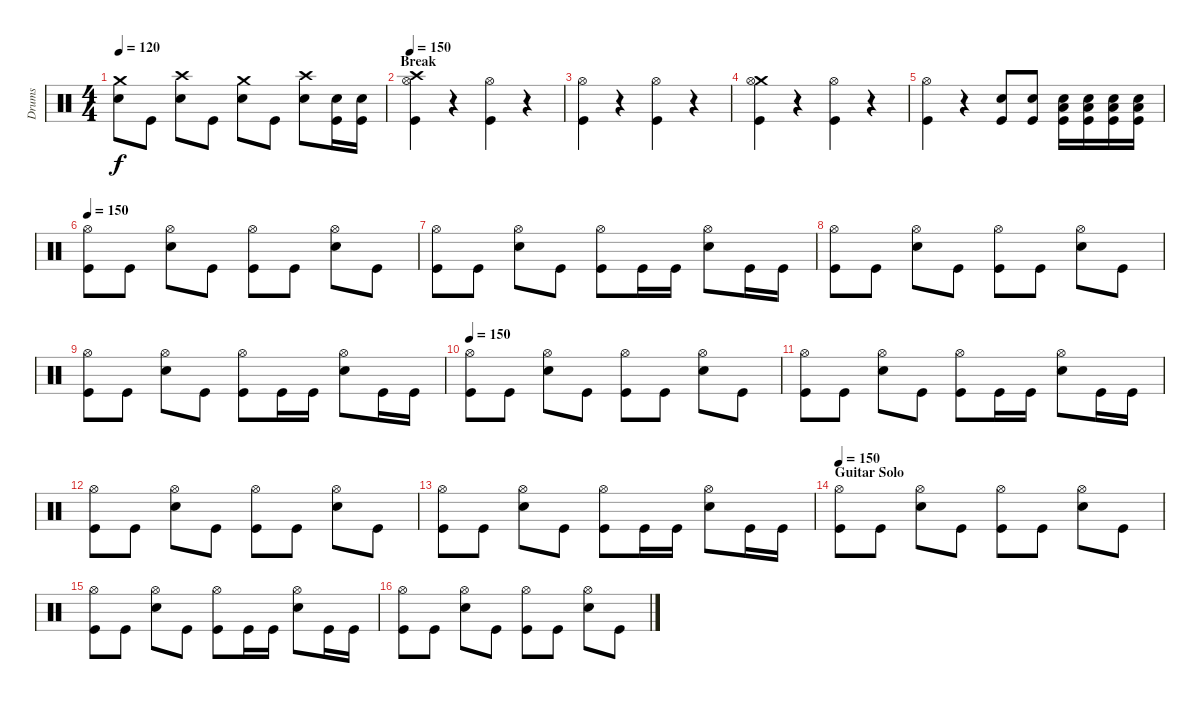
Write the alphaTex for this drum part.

\track ("Drums" "Drums") {instrument percussion}
\staff {score}
\articulation defaults
\ts (4 4)
\tempo 120
\clef neutral
\ks c
("Crash medium (hit)" "Electric Snare (hit)").8{dy f} "Kick (hit)".8 ("Crash high (hit)" "Electric Snare (hit)").8 "Kick (hit)".8 ("Crash medium (hit)" "Electric Snare (hit)").8 "Kick (hit)".8 ("Crash high (hit)" "Electric Snare (hit)").8 ("Snare (hit) 2" "Kick (hit)").16 ("Snare (hit) 2" "Kick (hit)").16 |
\section ("" "Break")
\tempo 150
("Crash high (hit)" "Hi-Hat (open)" "Kick (hit)").4 r.4 ("Hi-Hat (open)" "Kick (hit)").4 r.4 |
("Hi-Hat (open)" "Kick (hit)").4 r.4 ("Hi-Hat (open)" "Kick (hit)").4 r.4 |
("Crash medium (hit)" "Hi-Hat (open)" "Kick (hit)").4 r.4 ("Hi-Hat (open)" "Kick (hit)").4 r.4 |
("Hi-Hat (open)" "Kick (hit)").4 r.4 ("Electric Snare (hit)" "Kick (hit)").8 ("Electric Snare (hit)" "Kick (hit)").8 ("Low Floor Tom (hit)" "Electric Snare (hit)" "Kick (hit)").16 ("Low Floor Tom (hit)" "Electric Snare (hit)" "Kick (hit)").16 ("Low Floor Tom (hit)" "Electric Snare (hit)" "Kick (hit)").16 ("Low Floor Tom (hit)" "Electric Snare (hit)" "Kick (hit)").16 |
\tempo 150
("Hi-Hat (open)" "Kick (hit)").8 "Kick (hit)".8 ("Hi-Hat (open)" "Electric Snare (hit)").8 "Kick (hit)".8 ("Hi-Hat (open)" "Kick (hit)").8 "Kick (hit)".8 ("Hi-Hat (open)" "Electric Snare (hit)").8 "Kick (hit)".8 |
("Hi-Hat (open)" "Kick (hit)").8 "Kick (hit)".8 ("Hi-Hat (open)" "Electric Snare (hit)").8 "Kick (hit)".8 ("Hi-Hat (open)" "Kick (hit)").8 "Kick (hit)".16 "Kick (hit)".16 ("Hi-Hat (open)" "Electric Snare (hit)").8 "Kick (hit)".16 "Kick (hit)".16 |
("Hi-Hat (open)" "Kick (hit)").8 "Kick (hit)".8 ("Hi-Hat (open)" "Electric Snare (hit)").8 "Kick (hit)".8 ("Hi-Hat (open)" "Kick (hit)").8 "Kick (hit)".8 ("Hi-Hat (open)" "Electric Snare (hit)").8 "Kick (hit)".8 |
("Hi-Hat (open)" "Kick (hit)").8 "Kick (hit)".8 ("Hi-Hat (open)" "Electric Snare (hit)").8 "Kick (hit)".8 ("Hi-Hat (open)" "Kick (hit)").8 "Kick (hit)".16 "Kick (hit)".16 ("Hi-Hat (open)" "Electric Snare (hit)").8 "Kick (hit)".16 "Kick (hit)".16 |
\tempo 150
("Hi-Hat (open)" "Kick (hit)").8 "Kick (hit)".8 ("Hi-Hat (open)" "Electric Snare (hit)").8 "Kick (hit)".8 ("Hi-Hat (open)" "Kick (hit)").8 "Kick (hit)".8 ("Hi-Hat (open)" "Electric Snare (hit)").8 "Kick (hit)".8 |
("Hi-Hat (open)" "Kick (hit)").8 "Kick (hit)".8 ("Hi-Hat (open)" "Electric Snare (hit)").8 "Kick (hit)".8 ("Hi-Hat (open)" "Kick (hit)").8 "Kick (hit)".16 "Kick (hit)".16 ("Hi-Hat (open)" "Electric Snare (hit)").8 "Kick (hit)".16 "Kick (hit)".16 |
("Hi-Hat (open)" "Kick (hit)").8 "Kick (hit)".8 ("Hi-Hat (open)" "Electric Snare (hit)").8 "Kick (hit)".8 ("Hi-Hat (open)" "Kick (hit)").8 "Kick (hit)".8 ("Hi-Hat (open)" "Electric Snare (hit)").8 "Kick (hit)".8 |
("Hi-Hat (open)" "Kick (hit)").8 "Kick (hit)".8 ("Hi-Hat (open)" "Electric Snare (hit)").8 "Kick (hit)".8 ("Hi-Hat (open)" "Kick (hit)").8 "Kick (hit)".16 "Kick (hit)".16 ("Hi-Hat (open)" "Electric Snare (hit)").8 "Kick (hit)".16 "Kick (hit)".16 |
\section ("" "Guitar Solo")
\tempo 150
("Hi-Hat (open)" "Kick (hit)").8 "Kick (hit)".8 ("Hi-Hat (open)" "Electric Snare (hit)").8 "Kick (hit)".8 ("Hi-Hat (open)" "Kick (hit)").8 "Kick (hit)".8 ("Hi-Hat (open)" "Electric Snare (hit)").8 "Kick (hit)".8 |
("Hi-Hat (open)" "Kick (hit)").8 "Kick (hit)".8 ("Hi-Hat (open)" "Electric Snare (hit)").8 "Kick (hit)".8 ("Hi-Hat (open)" "Kick (hit)").8 "Kick (hit)".16 "Kick (hit)".16 ("Hi-Hat (open)" "Electric Snare (hit)").8 "Kick (hit)".16 "Kick (hit)".16 |
("Hi-Hat (open)" "Kick (hit)").8 "Kick (hit)".8 ("Hi-Hat (open)" "Electric Snare (hit)").8 "Kick (hit)".8 ("Hi-Hat (open)" "Kick (hit)").8 "Kick (hit)".8 ("Hi-Hat (open)" "Electric Snare (hit)").8 "Kick (hit)".8
